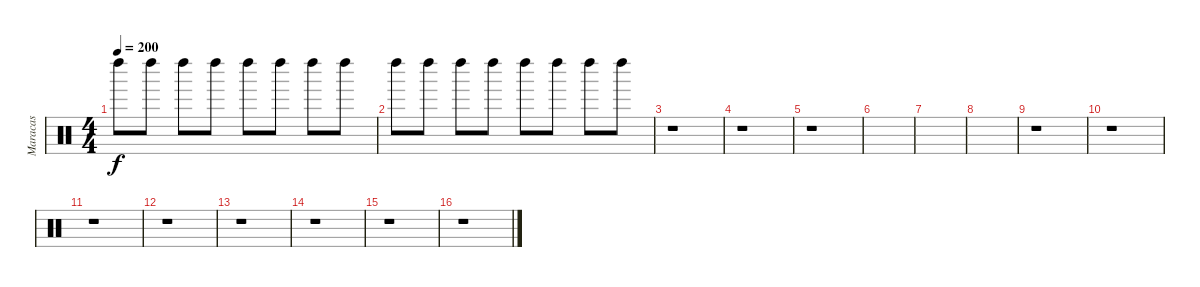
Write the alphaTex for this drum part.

\track ("Maracas" "Maracas") {instrument percussion}
\staff {score}
\articulation defaults
\ts (4 4)
\tempo 200
\clef neutral
\ks c "Left Maraca (hit)".8{dy f} "Left Maraca (hit)".8 "Left Maraca (hit)".8 "Left Maraca (hit)".8 "Left Maraca (hit)".8 "Left Maraca (hit)".8 "Left Maraca (hit)".8 "Left Maraca (hit)".8
|
"Left Maraca (hit)".8 "Left Maraca (hit)".8 "Left Maraca (hit)".8 "Left Maraca (hit)".8 "Left Maraca (hit)".8 "Left Maraca (hit)".8 "Left Maraca (hit)".8 "Left Maraca (hit)".8 |
r.1 |
r.1 |
r.1 |
|
|
|
r.1 |
r.1 |
r.1 |
r.1 |
r.1 |
r.1 |
r.1 |
r.1
